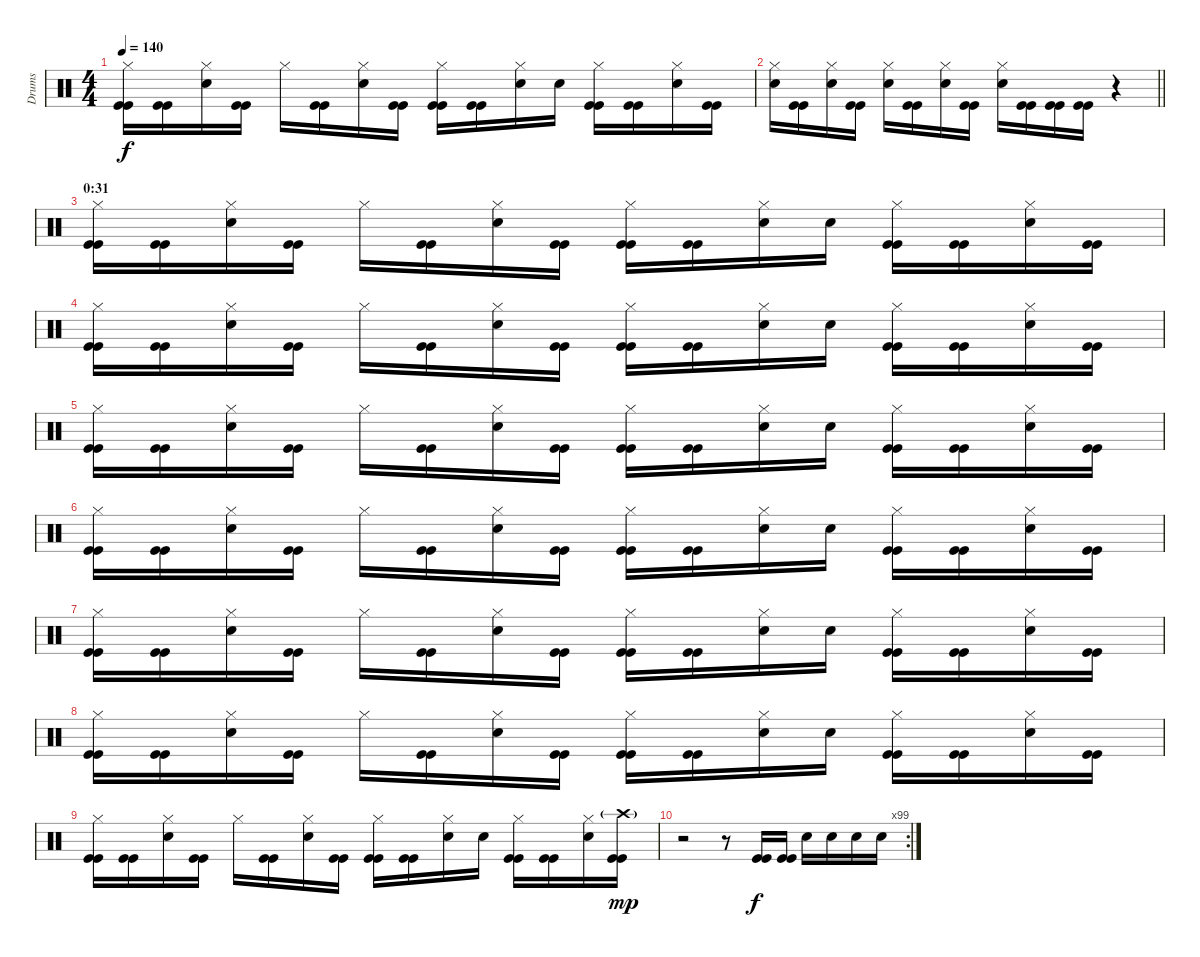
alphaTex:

\track ("Drums" "Drums") {instrument percussion}
\staff {score}
\articulation defaults
\ts (4 4)
\tempo 140
\clef neutral
\ks c
("Hi-Hat (closed)" "Kick (hit)" "Kick (hit)").16{dy f} ("Kick (hit)" "Kick (hit)").16 ("Hi-Hat (closed)" "Snare (hit) 2").16 ("Kick (hit)" "Kick (hit)").16 "Hi-Hat (closed)".16 ("Kick (hit)" "Kick (hit)").16 ("Hi-Hat (closed)" "Snare (hit) 2").16 ("Kick (hit)" "Kick (hit)").16 ("Hi-Hat (closed)" "Kick (hit)" "Kick (hit)").16 ("Kick (hit)" "Kick (hit)").16 ("Hi-Hat (closed)" "Snare (hit) 2").16 "Snare (hit) 2".16 ("Hi-Hat (closed)" "Kick (hit)" "Kick (hit)").16 ("Kick (hit)" "Kick (hit)").16 ("Hi-Hat (closed)" "Snare (hit) 2").16 ("Kick (hit)" "Kick (hit)").16 |
\barLineRight lightlight
("Hi-Hat (closed)" "Snare (hit) 2").16 ("Kick (hit)" "Kick (hit)").16 ("Hi-Hat (closed)" "Snare (hit) 2").16 ("Kick (hit)" "Kick (hit)").16 ("Hi-Hat (closed)" "Snare (hit) 2").16 ("Kick (hit)" "Kick (hit)").16 ("Hi-Hat (closed)" "Snare (hit) 2").16 ("Kick (hit)" "Kick (hit)").16 ("Hi-Hat (closed)" "Snare (hit) 2").16 ("Kick (hit)" "Kick (hit)").16 ("Kick (hit)" "Kick (hit)").16 ("Kick (hit)" "Kick (hit)").16 r.4 |
\section ("" "0:31")
("Hi-Hat (closed)" "Kick (hit)" "Kick (hit)").16 ("Kick (hit)" "Kick (hit)").16 ("Hi-Hat (closed)" "Snare (hit) 2").16 ("Kick (hit)" "Kick (hit)").16 "Hi-Hat (closed)".16 ("Kick (hit)" "Kick (hit)").16 ("Hi-Hat (closed)" "Snare (hit) 2").16 ("Kick (hit)" "Kick (hit)").16 ("Hi-Hat (closed)" "Kick (hit)" "Kick (hit)").16 ("Kick (hit)" "Kick (hit)").16 ("Hi-Hat (closed)" "Snare (hit) 2").16 "Snare (hit) 2".16 ("Hi-Hat (closed)" "Kick (hit)" "Kick (hit)").16 ("Kick (hit)" "Kick (hit)").16 ("Hi-Hat (closed)" "Snare (hit) 2").16 ("Kick (hit)" "Kick (hit)").16 |
("Hi-Hat (closed)" "Kick (hit)" "Kick (hit)").16 ("Kick (hit)" "Kick (hit)").16 ("Hi-Hat (closed)" "Snare (hit) 2").16 ("Kick (hit)" "Kick (hit)").16 "Hi-Hat (closed)".16 ("Kick (hit)" "Kick (hit)").16 ("Hi-Hat (closed)" "Snare (hit) 2").16 ("Kick (hit)" "Kick (hit)").16 ("Hi-Hat (closed)" "Kick (hit)" "Kick (hit)").16 ("Kick (hit)" "Kick (hit)").16 ("Hi-Hat (closed)" "Snare (hit) 2").16 "Snare (hit) 2".16 ("Hi-Hat (closed)" "Kick (hit)" "Kick (hit)").16 ("Kick (hit)" "Kick (hit)").16 ("Hi-Hat (closed)" "Snare (hit) 2").16 ("Kick (hit)" "Kick (hit)").16 |
("Hi-Hat (closed)" "Kick (hit)" "Kick (hit)").16 ("Kick (hit)" "Kick (hit)").16 ("Hi-Hat (closed)" "Snare (hit) 2").16 ("Kick (hit)" "Kick (hit)").16 "Hi-Hat (closed)".16 ("Kick (hit)" "Kick (hit)").16 ("Hi-Hat (closed)" "Snare (hit) 2").16 ("Kick (hit)" "Kick (hit)").16 ("Hi-Hat (closed)" "Kick (hit)" "Kick (hit)").16 ("Kick (hit)" "Kick (hit)").16 ("Hi-Hat (closed)" "Snare (hit) 2").16 "Snare (hit) 2".16 ("Hi-Hat (closed)" "Kick (hit)" "Kick (hit)").16 ("Kick (hit)" "Kick (hit)").16 ("Hi-Hat (closed)" "Snare (hit) 2").16 ("Kick (hit)" "Kick (hit)").16 |
("Hi-Hat (closed)" "Kick (hit)" "Kick (hit)").16 ("Kick (hit)" "Kick (hit)").16 ("Hi-Hat (closed)" "Snare (hit) 2").16 ("Kick (hit)" "Kick (hit)").16 "Hi-Hat (closed)".16 ("Kick (hit)" "Kick (hit)").16 ("Hi-Hat (closed)" "Snare (hit) 2").16 ("Kick (hit)" "Kick (hit)").16 ("Hi-Hat (closed)" "Kick (hit)" "Kick (hit)").16 ("Kick (hit)" "Kick (hit)").16 ("Hi-Hat (closed)" "Snare (hit) 2").16 "Snare (hit) 2".16 ("Hi-Hat (closed)" "Kick (hit)" "Kick (hit)").16 ("Kick (hit)" "Kick (hit)").16 ("Hi-Hat (closed)" "Snare (hit) 2").16 ("Kick (hit)" "Kick (hit)").16 |
("Hi-Hat (closed)" "Kick (hit)" "Kick (hit)").16 ("Kick (hit)" "Kick (hit)").16 ("Hi-Hat (closed)" "Snare (hit) 2").16 ("Kick (hit)" "Kick (hit)").16 "Hi-Hat (closed)".16 ("Kick (hit)" "Kick (hit)").16 ("Hi-Hat (closed)" "Snare (hit) 2").16 ("Kick (hit)" "Kick (hit)").16 ("Hi-Hat (closed)" "Kick (hit)" "Kick (hit)").16 ("Kick (hit)" "Kick (hit)").16 ("Hi-Hat (closed)" "Snare (hit) 2").16 "Snare (hit) 2".16 ("Hi-Hat (closed)" "Kick (hit)" "Kick (hit)").16 ("Kick (hit)" "Kick (hit)").16 ("Hi-Hat (closed)" "Snare (hit) 2").16 ("Kick (hit)" "Kick (hit)").16 |
("Hi-Hat (closed)" "Kick (hit)" "Kick (hit)").16 ("Kick (hit)" "Kick (hit)").16 ("Hi-Hat (closed)" "Snare (hit) 2").16 ("Kick (hit)" "Kick (hit)").16 "Hi-Hat (closed)".16 ("Kick (hit)" "Kick (hit)").16 ("Hi-Hat (closed)" "Snare (hit) 2").16 ("Kick (hit)" "Kick (hit)").16 ("Hi-Hat (closed)" "Kick (hit)" "Kick (hit)").16 ("Kick (hit)" "Kick (hit)").16 ("Hi-Hat (closed)" "Snare (hit) 2").16 "Snare (hit) 2".16 ("Hi-Hat (closed)" "Kick (hit)" "Kick (hit)").16 ("Kick (hit)" "Kick (hit)").16 ("Hi-Hat (closed)" "Snare (hit) 2").16 ("Kick (hit)" "Kick (hit)").16 |
("Hi-Hat (closed)" "Kick (hit)" "Kick (hit)").16 ("Kick (hit)" "Kick (hit)").16 ("Hi-Hat (closed)" "Snare (hit) 2").16 ("Kick (hit)" "Kick (hit)").16 "Hi-Hat (closed)".16 ("Kick (hit)" "Kick (hit)").16 ("Hi-Hat (closed)" "Snare (hit) 2").16 ("Kick (hit)" "Kick (hit)").16 ("Hi-Hat (closed)" "Kick (hit)" "Kick (hit)").16 ("Kick (hit)" "Kick (hit)").16 ("Hi-Hat (closed)" "Snare (hit) 2").16 "Snare (hit) 2".16 ("Hi-Hat (closed)" "Kick (hit)" "Kick (hit)").16 ("Kick (hit)" "Kick (hit)").16 ("Hi-Hat (closed)" "Snare (hit) 2").16 ("Crash high (hit)"{g} "Kick (hit)" "Kick (hit)").16{dy mp} |
\rc 99
r.2 r.8 ("Kick (hit)" "Kick (hit)").16{dy f} ("Kick (hit)" "Kick (hit)").16 "Snare (hit) 2".16 "Snare (hit) 2".16 "Snare (hit) 2".16 "Snare (hit) 2".16
